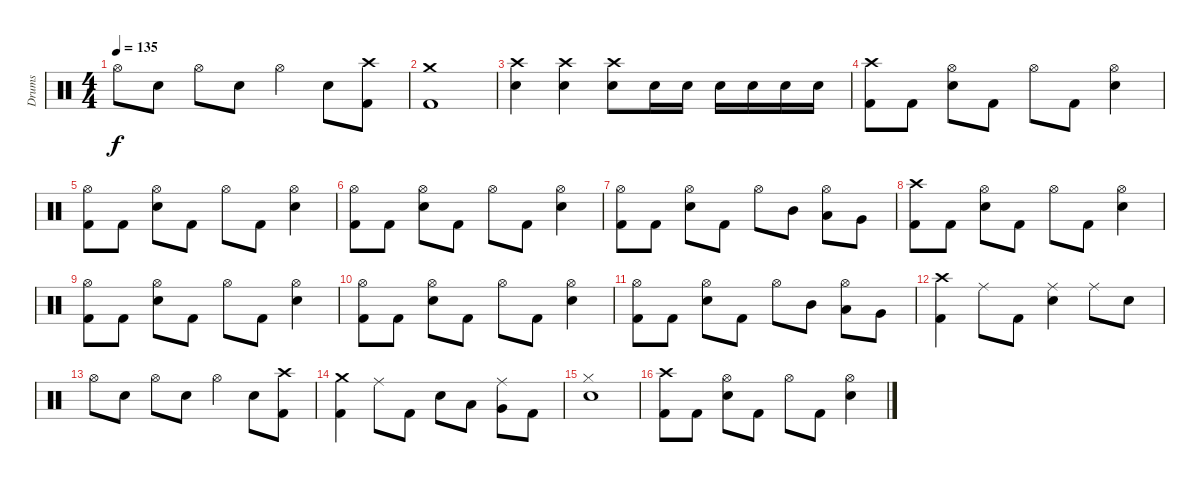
\track ("Drums" "Drums") {instrument percussion}
\staff {score}
\articulation defaults
\ts (4 4)
\tempo 135
\clef neutral
\ks c "Hi-Hat (open)".8{dy f} "Electric Snare (hit)".8 "Hi-Hat (open)".8 "Electric Snare (hit)".8 "Hi-Hat (open)".4 "Electric Snare (hit)".8
("Crash high (hit)" "Kick (hit) 2").8 |
("Kick (hit) 2" "Crash medium (hit)").1 |
("Crash high (hit)" "Electric Snare (hit)").4 ("Crash high (hit)" "Electric Snare (hit)").4 ("Crash high (hit)" "Electric Snare (hit)").8 "Electric Snare (hit)".16 "Electric Snare (hit)".16 "Electric Snare (hit)".16 "Electric Snare (hit)".16 "Electric Snare (hit)".16 "Electric Snare (hit)".16 |
("Crash high (hit)" "Kick (hit) 2").8 "Kick (hit) 2".8 ("Hi-Hat (open)" "Electric Snare (hit)").8 "Kick (hit) 2".8 "Hi-Hat (open)".8 "Kick (hit) 2".8 ("Hi-Hat (open)" "Electric Snare (hit)").4 |
("Hi-Hat (open)" "Kick (hit) 2").8 "Kick (hit) 2".8 ("Hi-Hat (open)" "Electric Snare (hit)").8 "Kick (hit) 2".8 "Hi-Hat (open)".8 "Kick (hit) 2".8 ("Hi-Hat (open)" "Electric Snare (hit)").4 |
("Hi-Hat (open)" "Kick (hit) 2").8 "Kick (hit) 2".8 ("Hi-Hat (open)" "Electric Snare (hit)").8 "Kick (hit) 2".8 "Hi-Hat (open)".8 "Kick (hit) 2".8 ("Hi-Hat (open)" "Electric Snare (hit)").4 |
("Hi-Hat (open)" "Kick (hit) 2").8 "Kick (hit) 2".8 ("Hi-Hat (open)" "Electric Snare (hit)").8 "Kick (hit) 2".8 "Hi-Hat (open)".8 "Mid Tom (hit)".8 ("Hi-Hat (open)" "Low Tom (hit)").8 "Very Low Tom (hit)".8 |
("Crash high (hit)" "Kick (hit) 2").8 "Kick (hit) 2".8 ("Hi-Hat (open)" "Electric Snare (hit)").8 "Kick (hit) 2".8 "Hi-Hat (open)".8 "Kick (hit) 2".8 ("Hi-Hat (open)" "Electric Snare (hit)").4 |
("Hi-Hat (open)" "Kick (hit) 2").8 "Kick (hit) 2".8 ("Hi-Hat (open)" "Electric Snare (hit)").8 "Kick (hit) 2".8 "Hi-Hat (open)".8 "Kick (hit) 2".8 ("Hi-Hat (open)" "Electric Snare (hit)").4 |
("Hi-Hat (open)" "Kick (hit) 2").8 "Kick (hit) 2".8 ("Hi-Hat (open)" "Electric Snare (hit)").8 "Kick (hit) 2".8 "Hi-Hat (open)".8 "Kick (hit) 2".8 ("Hi-Hat (open)" "Electric Snare (hit)").4 |
("Hi-Hat (open)" "Kick (hit) 2").8 "Kick (hit) 2".8 ("Hi-Hat (open)" "Electric Snare (hit)").8 "Kick (hit) 2".8 "Hi-Hat (open)".8 "Mid Tom (hit)".8 ("Hi-Hat (open)" "Low Tom (hit)").8 "Very Low Tom (hit)".8 |
("Crash high (hit)" "Kick (hit) 2").4 "Ride (middle)".8 "Kick (hit) 2".8 ("Ride (middle)" "Electric Snare (hit)").4 "Ride (middle)".8 "Electric Snare (hit)".8 |
"Hi-Hat (open)".8 "Electric Snare (hit)".8 "Hi-Hat (open)".8 "Electric Snare (hit)".8 "Hi-Hat (open)".4 "Electric Snare (hit)".8 ("Crash high (hit)" "Kick (hit) 2").8 |
("Kick (hit) 2" "Crash medium (hit)").4 "Ride (middle)".8 "Kick (hit) 2".8 "Electric Snare (hit)".8 "Low Tom (hit)".8 ("Ride (middle)" "Very Low Tom (hit)").8 "Kick (hit) 2".8 |
("Hi-Hat (closed)" "Electric Snare (hit)").1 |
("Crash high (hit)" "Kick (hit) 2").8 "Kick (hit) 2".8 ("Hi-Hat (open)" "Electric Snare (hit)").8 "Kick (hit) 2".8 "Hi-Hat (open)".8 "Kick (hit) 2".8 ("Hi-Hat (open)" "Electric Snare (hit)").4
